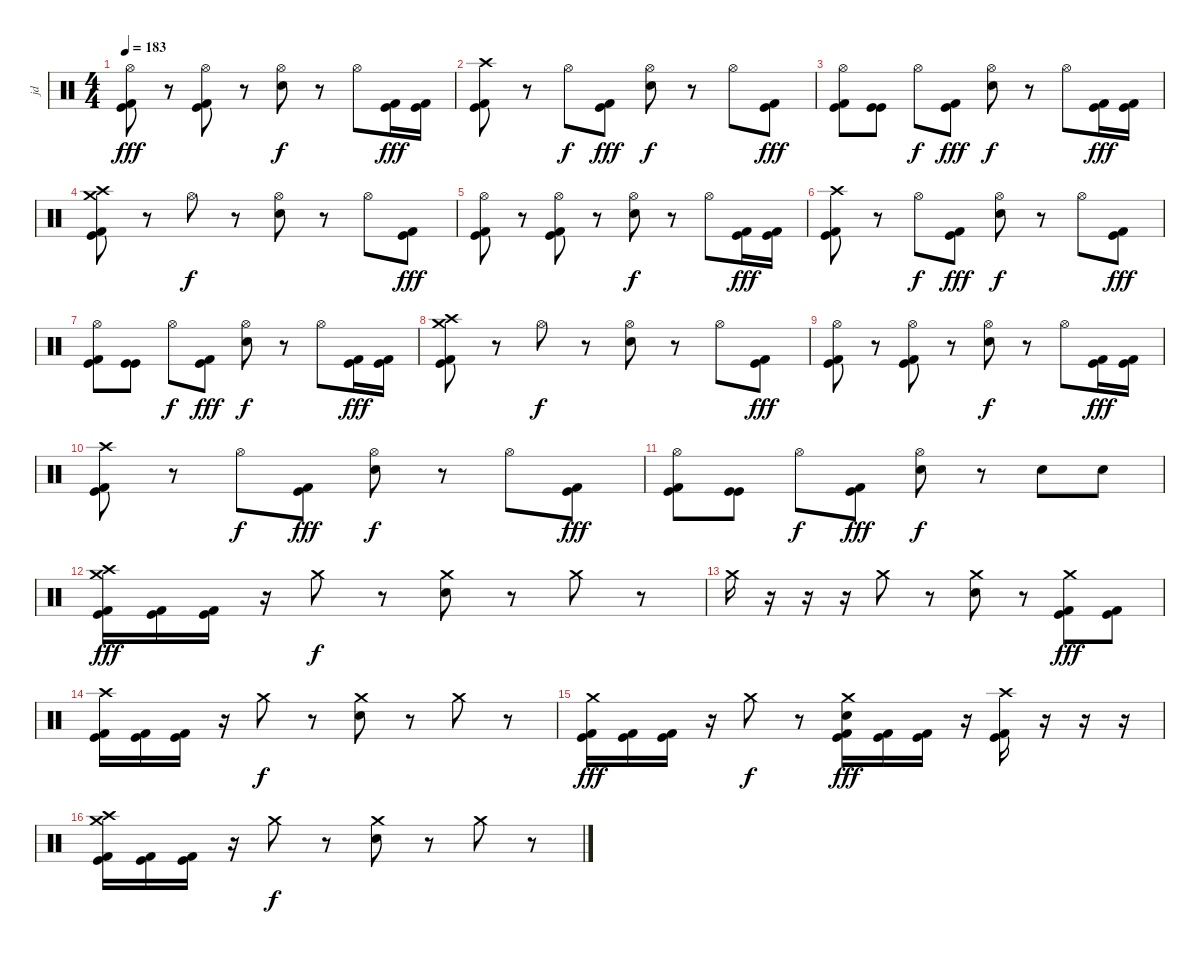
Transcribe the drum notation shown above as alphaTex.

\track ("jd" "jd") {instrument percussion}
\staff {score}
\articulation defaults
\ts (4 4)
\tempo 183
\clef neutral
\ks c
("Kick (hit)" "Kick (hit) 2" "Hi-Hat (open)").8{dy fff} r.8 ("Kick (hit)" "Kick (hit) 2" "Hi-Hat (open)").8 r.8 ("Electric Snare (hit)" "Hi-Hat (open)").8{dy f} r.8 "Hi-Hat (open)".8 ("Kick (hit)" "Kick (hit) 2").16{dy fff} ("Kick (hit)" "Kick (hit) 2").16 |
("Kick (hit)" "Kick (hit) 2" "Crash high (hit)").8 r.8 "Hi-Hat (open)".8{dy f} ("Kick (hit)" "Kick (hit) 2").8{dy fff} ("Electric Snare (hit)" "Hi-Hat (open)").8{dy f} r.8 "Hi-Hat (open)".8 ("Kick (hit)" "Kick (hit) 2").8{dy fff} |
("Kick (hit)" "Kick (hit) 2" "Hi-Hat (open)").8 ("Kick (hit)" "Kick (hit)").8 "Hi-Hat (open)".8{dy f} ("Kick (hit)" "Kick (hit) 2").8{dy fff} ("Electric Snare (hit)" "Hi-Hat (open)").8{dy f} r.8 "Hi-Hat (open)".8 ("Kick (hit)" "Kick (hit) 2").16{dy fff} ("Kick (hit)" "Kick (hit) 2").16 |
("Kick (hit)" "Kick (hit) 2" "Crash high (hit)" "Crash medium (hit)").8 r.8 "Hi-Hat (open)".8{dy f} r.8 ("Electric Snare (hit)" "Hi-Hat (open)").8 r.8 "Hi-Hat (open)".8 ("Kick (hit)" "Kick (hit) 2").8{dy fff} |
("Kick (hit)" "Kick (hit) 2" "Hi-Hat (open)").8 r.8 ("Kick (hit)" "Kick (hit) 2" "Hi-Hat (open)").8 r.8 ("Electric Snare (hit)" "Hi-Hat (open)").8{dy f} r.8 "Hi-Hat (open)".8 ("Kick (hit)" "Kick (hit) 2").16{dy fff} ("Kick (hit)" "Kick (hit) 2").16 |
("Kick (hit)" "Kick (hit) 2" "Crash high (hit)").8 r.8 "Hi-Hat (open)".8{dy f} ("Kick (hit)" "Kick (hit) 2").8{dy fff} ("Electric Snare (hit)" "Hi-Hat (open)").8{dy f} r.8 "Hi-Hat (open)".8 ("Kick (hit)" "Kick (hit) 2").8{dy fff} |
("Kick (hit)" "Kick (hit) 2" "Hi-Hat (open)").8 ("Kick (hit)" "Kick (hit)").8 "Hi-Hat (open)".8{dy f} ("Kick (hit)" "Kick (hit) 2").8{dy fff} ("Electric Snare (hit)" "Hi-Hat (open)").8{dy f} r.8 "Hi-Hat (open)".8 ("Kick (hit)" "Kick (hit) 2").16{dy fff} ("Kick (hit)" "Kick (hit) 2").16 |
("Kick (hit)" "Kick (hit) 2" "Crash high (hit)" "Crash medium (hit)").8 r.8 "Hi-Hat (open)".8{dy f} r.8 ("Electric Snare (hit)" "Hi-Hat (open)").8 r.8 "Hi-Hat (open)".8 ("Kick (hit)" "Kick (hit) 2").8{dy fff} |
("Kick (hit)" "Kick (hit) 2" "Hi-Hat (open)").8 r.8 ("Kick (hit)" "Kick (hit) 2" "Hi-Hat (open)").8 r.8 ("Electric Snare (hit)" "Hi-Hat (open)").8{dy f} r.8 "Hi-Hat (open)".8 ("Kick (hit)" "Kick (hit) 2").16{dy fff} ("Kick (hit)" "Kick (hit) 2").16 |
("Kick (hit)" "Kick (hit) 2" "Crash high (hit)").8 r.8 "Hi-Hat (open)".8{dy f} ("Kick (hit)" "Kick (hit) 2").8{dy fff} ("Electric Snare (hit)" "Hi-Hat (open)").8{dy f} r.8 "Hi-Hat (open)".8 ("Kick (hit)" "Kick (hit) 2").8{dy fff} |
("Kick (hit)" "Kick (hit) 2" "Hi-Hat (open)").8 ("Kick (hit)" "Kick (hit)").8 "Hi-Hat (open)".8{dy f} ("Kick (hit)" "Kick (hit) 2").8{dy fff} ("Electric Snare (hit)" "Hi-Hat (open)").8{dy f} r.8 "Electric Snare (hit)".8 "Electric Snare (hit)".8 |
("Kick (hit)" "Kick (hit) 2" "Crash high (hit)" "Crash medium (hit)").16{dy fff} ("Kick (hit)" "Kick (hit) 2").16 ("Kick (hit)" "Kick (hit) 2").16 r.16 "Crash medium (hit)".8{dy f} r.8 ("Electric Snare (hit)" "Crash medium (hit)").8 r.8 "Crash medium (hit)".8 r.8 |
"Crash medium (hit)".16 r.16 r.16 r.16 "Crash medium (hit)".8 r.8 ("Electric Snare (hit)" "Crash medium (hit)").8 r.8 ("Kick (hit)" "Kick (hit) 2" "Crash medium (hit)").8{dy fff} ("Kick (hit)" "Kick (hit) 2").8 |
("Kick (hit)" "Kick (hit) 2" "Crash high (hit)").16 ("Kick (hit)" "Kick (hit) 2").16 ("Kick (hit)" "Kick (hit) 2").16 r.16 "Crash medium (hit)".8{dy f} r.8 ("Electric Snare (hit)" "Crash medium (hit)").8 r.8 "Crash medium (hit)".8 r.8 |
("Kick (hit)" "Kick (hit) 2" "Crash medium (hit)").16{dy fff} ("Kick (hit)" "Kick (hit) 2").16 ("Kick (hit)" "Kick (hit) 2").16 r.16 "Crash medium (hit)".8{dy f} r.8 ("Kick (hit)" "Kick (hit) 2" "Electric Snare (hit)" "Crash medium (hit)").16{dy fff} ("Kick (hit)" "Kick (hit) 2").16 ("Kick (hit)" "Kick (hit) 2").16 r.16 ("Kick (hit)" "Kick (hit) 2" "Crash high (hit)").16 r.16 r.16 r.16 |
("Kick (hit)" "Kick (hit) 2" "Crash high (hit)" "Crash medium (hit)").16 ("Kick (hit)" "Kick (hit) 2").16 ("Kick (hit)" "Kick (hit) 2").16 r.16 "Crash medium (hit)".8{dy f} r.8 ("Electric Snare (hit)" "Crash medium (hit)").8 r.8 "Crash medium (hit)".8 r.8
